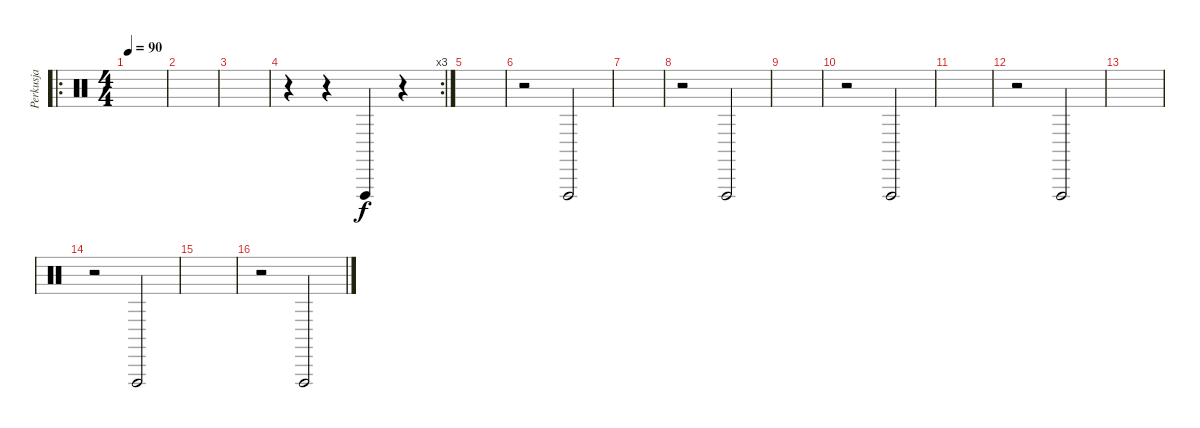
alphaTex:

\track ("Perkusja" "Perkusja") {instrument percussion}
\staff {score}
\articulation defaults
\ro
\ts (4 4)
\tempo 90
\clef neutral
\ks c
|
|
|
\rc 3
r.4 r.4 "Vibraslap (hit)".4 r.4 |
|
r.2 "Vibraslap (hit)".2 |
|
r.2 "Vibraslap (hit)".2 |
|
r.2 "Vibraslap (hit)".2 |
|
r.2 "Vibraslap (hit)".2 |
|
r.2 "Vibraslap (hit)".2 |
|
r.2 "Vibraslap (hit)".2
